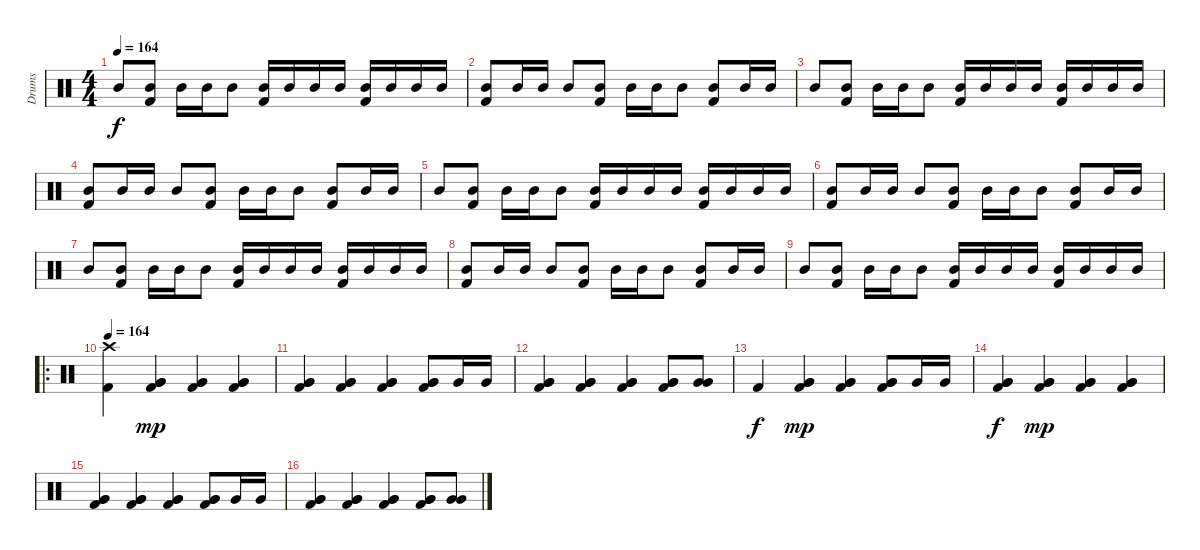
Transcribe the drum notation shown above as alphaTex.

\track ("Drums" "Drums") {instrument percussion}
\staff {score}
\articulation defaults
\ts (4 4)
\tempo 164
\clef neutral
\ks c "Mid Tom (hit)".8{dy f}
("Mid Tom (hit)" "Kick (hit) 2").8 "Mid Tom (hit)".16 "Mid Tom (hit)".16 "Mid Tom (hit)".8 ("Mid Tom (hit)" "Kick (hit) 2").16 "Mid Tom (hit)".16 "Mid Tom (hit)".16 "Mid Tom (hit)".16 ("Mid Tom (hit)" "Kick (hit) 2").16 "Mid Tom (hit)".16 "Mid Tom (hit)".16 "Mid Tom (hit)".16 |
("Mid Tom (hit)" "Kick (hit) 2").8 "Mid Tom (hit)".16 "Mid Tom (hit)".16 "Mid Tom (hit)".8 ("Mid Tom (hit)" "Kick (hit) 2").8 "Mid Tom (hit)".16 "Mid Tom (hit)".16 "Mid Tom (hit)".8 ("Mid Tom (hit)" "Kick (hit) 2").8 "Mid Tom (hit)".16 "Mid Tom (hit)".16 |
"Mid Tom (hit)".8 ("Mid Tom (hit)" "Kick (hit) 2").8 "Mid Tom (hit)".16 "Mid Tom (hit)".16 "Mid Tom (hit)".8 ("Mid Tom (hit)" "Kick (hit) 2").16 "Mid Tom (hit)".16 "Mid Tom (hit)".16 "Mid Tom (hit)".16 ("Mid Tom (hit)" "Kick (hit) 2").16 "Mid Tom (hit)".16 "Mid Tom (hit)".16 "Mid Tom (hit)".16 |
("Mid Tom (hit)" "Kick (hit) 2").8 "Mid Tom (hit)".16 "Mid Tom (hit)".16 "Mid Tom (hit)".8 ("Mid Tom (hit)" "Kick (hit) 2").8 "Mid Tom (hit)".16 "Mid Tom (hit)".16 "Mid Tom (hit)".8 ("Mid Tom (hit)" "Kick (hit) 2").8 "Mid Tom (hit)".16 "Mid Tom (hit)".16 |
"Mid Tom (hit)".8 ("Mid Tom (hit)" "Kick (hit) 2").8 "Mid Tom (hit)".16 "Mid Tom (hit)".16 "Mid Tom (hit)".8 ("Mid Tom (hit)" "Kick (hit) 2").16 "Mid Tom (hit)".16 "Mid Tom (hit)".16 "Mid Tom (hit)".16 ("Mid Tom (hit)" "Kick (hit) 2").16 "Mid Tom (hit)".16 "Mid Tom (hit)".16 "Mid Tom (hit)".16 |
("Mid Tom (hit)" "Kick (hit) 2").8 "Mid Tom (hit)".16 "Mid Tom (hit)".16 "Mid Tom (hit)".8 ("Mid Tom (hit)" "Kick (hit) 2").8 "Mid Tom (hit)".16 "Mid Tom (hit)".16 "Mid Tom (hit)".8 ("Mid Tom (hit)" "Kick (hit) 2").8 "Mid Tom (hit)".16 "Mid Tom (hit)".16 |
"Mid Tom (hit)".8 ("Mid Tom (hit)" "Kick (hit) 2").8 "Mid Tom (hit)".16 "Mid Tom (hit)".16 "Mid Tom (hit)".8 ("Mid Tom (hit)" "Kick (hit) 2").16 "Mid Tom (hit)".16 "Mid Tom (hit)".16 "Mid Tom (hit)".16 ("Mid Tom (hit)" "Kick (hit) 2").16 "Mid Tom (hit)".16 "Mid Tom (hit)".16 "Mid Tom (hit)".16 |
("Mid Tom (hit)" "Kick (hit) 2").8 "Mid Tom (hit)".16 "Mid Tom (hit)".16 "Mid Tom (hit)".8 ("Mid Tom (hit)" "Kick (hit) 2").8 "Mid Tom (hit)".16 "Mid Tom (hit)".16 "Mid Tom (hit)".8 ("Mid Tom (hit)" "Kick (hit) 2").8 "Mid Tom (hit)".16 "Mid Tom (hit)".16 |
"Mid Tom (hit)".8 ("Mid Tom (hit)" "Kick (hit) 2").8 "Mid Tom (hit)".16 "Mid Tom (hit)".16 "Mid Tom (hit)".8 ("Mid Tom (hit)" "Kick (hit) 2").16 "Mid Tom (hit)".16 "Mid Tom (hit)".16 "Mid Tom (hit)".16 ("Mid Tom (hit)" "Kick (hit) 2").16 "Mid Tom (hit)".16 "Mid Tom (hit)".16 "Mid Tom (hit)".16 |
\ro
\tempo 164
("Crash high (hit)" "Kick (hit) 2").4 ("Very Low Tom (hit)" "Very Low Tom (hit)" "Kick (hit) 2").4{dy mp} ("Very Low Tom (hit)" "Very Low Tom (hit)" "Kick (hit) 2").4 ("Very Low Tom (hit)" "Very Low Tom (hit)" "Kick (hit) 2").4 |
("Very Low Tom (hit)" "Very Low Tom (hit)" "Kick (hit) 2").4 ("Very Low Tom (hit)" "Very Low Tom (hit)" "Kick (hit) 2").4 ("Very Low Tom (hit)" "Very Low Tom (hit)" "Kick (hit) 2").4 ("Very Low Tom (hit)" "Very Low Tom (hit)" "Kick (hit) 2").8 "Very Low Tom (hit)".16 "Very Low Tom (hit)".16 |
("Very Low Tom (hit)" "Very Low Tom (hit)" "Kick (hit) 2").4 ("Very Low Tom (hit)" "Very Low Tom (hit)" "Kick (hit) 2").4 ("Very Low Tom (hit)" "Very Low Tom (hit)" "Kick (hit) 2").4 ("Very Low Tom (hit)" "Very Low Tom (hit)" "Kick (hit) 2").8 ("Very Low Tom (hit)" "Very Low Tom (hit)").8 |
"Kick (hit) 2".4{dy f} ("Very Low Tom (hit)" "Very Low Tom (hit)" "Kick (hit) 2").4{dy mp} ("Very Low Tom (hit)" "Very Low Tom (hit)" "Kick (hit) 2").4 ("Very Low Tom (hit)" "Very Low Tom (hit)" "Kick (hit) 2").8 "Very Low Tom (hit)".16 "Very Low Tom (hit)".16 |
("Very Low Tom (hit)" "Very Low Tom (hit)" "Kick (hit) 2").4{dy f} ("Very Low Tom (hit)" "Very Low Tom (hit)" "Kick (hit) 2").4{dy mp} ("Very Low Tom (hit)" "Very Low Tom (hit)" "Kick (hit) 2").4 ("Very Low Tom (hit)" "Very Low Tom (hit)" "Kick (hit) 2").4 |
("Very Low Tom (hit)" "Very Low Tom (hit)" "Kick (hit) 2").4 ("Very Low Tom (hit)" "Very Low Tom (hit)" "Kick (hit) 2").4 ("Very Low Tom (hit)" "Very Low Tom (hit)" "Kick (hit) 2").4 ("Very Low Tom (hit)" "Very Low Tom (hit)" "Kick (hit) 2").8 "Very Low Tom (hit)".16 "Very Low Tom (hit)".16 |
("Very Low Tom (hit)" "Very Low Tom (hit)" "Kick (hit) 2").4 ("Very Low Tom (hit)" "Very Low Tom (hit)" "Kick (hit) 2").4 ("Very Low Tom (hit)" "Very Low Tom (hit)" "Kick (hit) 2").4 ("Very Low Tom (hit)" "Very Low Tom (hit)" "Kick (hit) 2").8 ("Very Low Tom (hit)" "Very Low Tom (hit)").8
